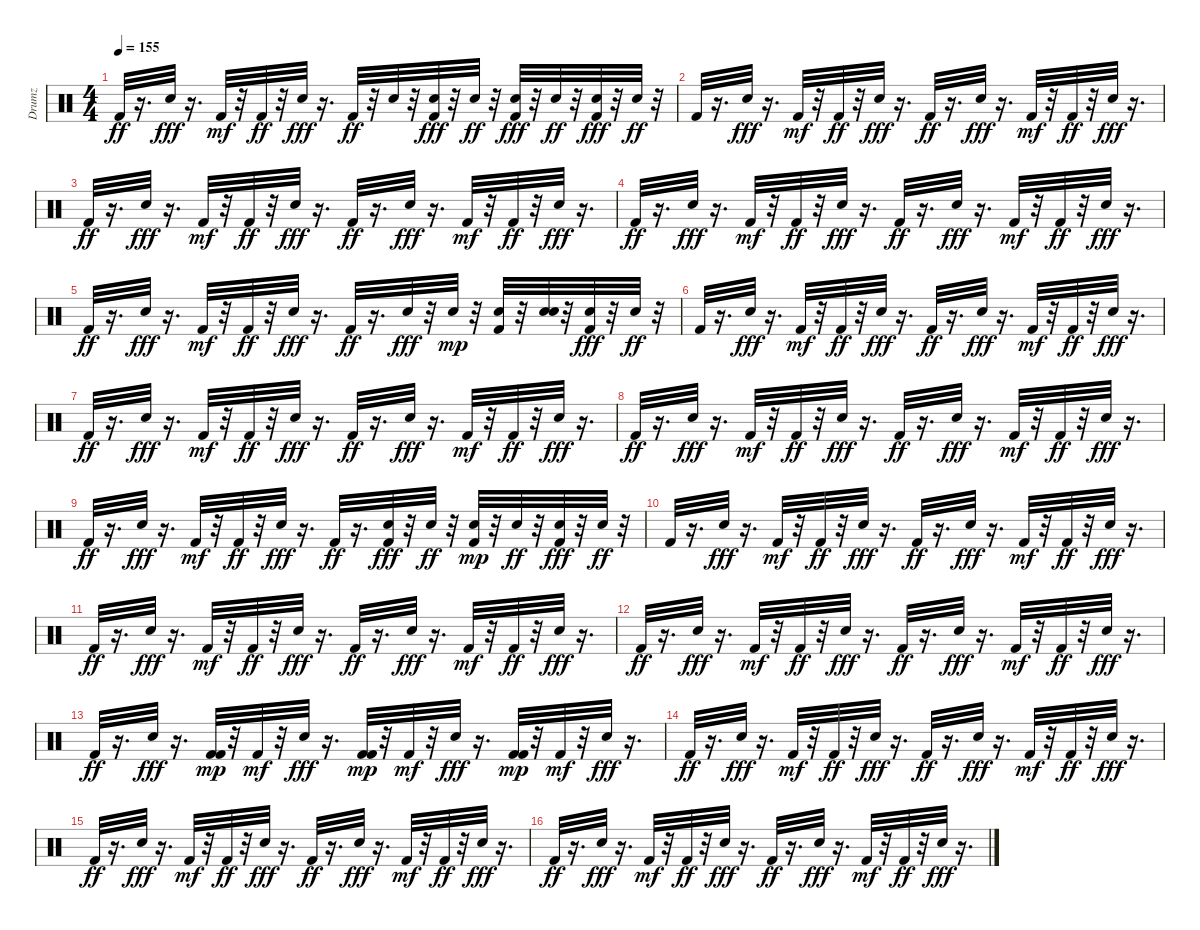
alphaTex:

\track ("Drumz" "Drumz") {instrument percussion}
\staff {score}
\articulation defaults
\ts (4 4)
\tempo 155
\clef neutral
\ks c "Kick (hit) 2".32{dy ff}
r.16{d} "Snare (hit) 2".32{dy fff} r.16{d} "Kick (hit) 2".32{dy mf} r.32 "Kick (hit) 2".32{dy ff} r.32 "Snare (hit) 2".32{dy fff} r.16{d} "Kick (hit) 2".32{dy ff} r.32 "Snare (hit) 2".32 r.32 ("Kick (hit) 2" "Snare (hit) 2").32{dy fff} r.32 "Snare (hit) 2".32{dy ff} r.32 ("Kick (hit) 2" "Snare (hit) 2").32{dy fff} r.32 "Snare (hit) 2".32{dy ff} r.32 ("Kick (hit) 2" "Snare (hit) 2").32{dy fff} r.32 "Snare (hit) 2".32{dy ff} r.32 |
"Kick (hit) 2".32 r.16{d} "Snare (hit) 2".32{dy fff} r.16{d} "Kick (hit) 2".32{dy mf} r.32 "Kick (hit) 2".32{dy ff} r.32 "Snare (hit) 2".32{dy fff} r.16{d} "Kick (hit) 2".32{dy ff} r.16{d} "Snare (hit) 2".32{dy fff} r.16{d} "Kick (hit) 2".32{dy mf} r.32 "Kick (hit) 2".32{dy ff} r.32 "Snare (hit) 2".32{dy fff} r.16{d} |
"Kick (hit) 2".32{dy ff} r.16{d} "Snare (hit) 2".32{dy fff} r.16{d} "Kick (hit) 2".32{dy mf} r.32 "Kick (hit) 2".32{dy ff} r.32 "Snare (hit) 2".32{dy fff} r.16{d} "Kick (hit) 2".32{dy ff} r.16{d} "Snare (hit) 2".32{dy fff} r.16{d} "Kick (hit) 2".32{dy mf} r.32 "Kick (hit) 2".32{dy ff} r.32 "Snare (hit) 2".32{dy fff} r.16{d} |
"Kick (hit) 2".32{dy ff} r.16{d} "Snare (hit) 2".32{dy fff} r.16{d} "Kick (hit) 2".32{dy mf} r.32 "Kick (hit) 2".32{dy ff} r.32 "Snare (hit) 2".32{dy fff} r.16{d} "Kick (hit) 2".32{dy ff} r.16{d} "Snare (hit) 2".32{dy fff} r.16{d} "Kick (hit) 2".32{dy mf} r.32 "Kick (hit) 2".32{dy ff} r.32 "Snare (hit) 2".32{dy fff} r.16{d} |
"Kick (hit) 2".32{dy ff} r.16{d} "Snare (hit) 2".32{dy fff} r.16{d} "Kick (hit) 2".32{dy mf} r.32 "Kick (hit) 2".32{dy ff} r.32 "Snare (hit) 2".32{dy fff} r.16{d} "Kick (hit) 2".32{dy ff} r.16{d} "Snare (hit) 2".32{dy fff} r.32 "Snare (hit) 2".32{dy mp} r.32 ("Kick (hit) 2" "Snare (hit) 2").32 r.32 ("Snare (hit) 2" "Snare (hit) 2").32 r.32 ("Kick (hit) 2" "Snare (hit) 2").32{dy fff} r.32 "Snare (hit) 2".32{dy ff} r.32 |
"Kick (hit) 2".32 r.16{d} "Snare (hit) 2".32{dy fff} r.16{d} "Kick (hit) 2".32{dy mf} r.32 "Kick (hit) 2".32{dy ff} r.32 "Snare (hit) 2".32{dy fff} r.16{d} "Kick (hit) 2".32{dy ff} r.16{d} "Snare (hit) 2".32{dy fff} r.16{d} "Kick (hit) 2".32{dy mf} r.32 "Kick (hit) 2".32{dy ff} r.32 "Snare (hit) 2".32{dy fff} r.16{d} |
"Kick (hit) 2".32{dy ff} r.16{d} "Snare (hit) 2".32{dy fff} r.16{d} "Kick (hit) 2".32{dy mf} r.32 "Kick (hit) 2".32{dy ff} r.32 "Snare (hit) 2".32{dy fff} r.16{d} "Kick (hit) 2".32{dy ff} r.16{d} "Snare (hit) 2".32{dy fff} r.16{d} "Kick (hit) 2".32{dy mf} r.32 "Kick (hit) 2".32{dy ff} r.32 "Snare (hit) 2".32{dy fff} r.16{d} |
"Kick (hit) 2".32{dy ff} r.16{d} "Snare (hit) 2".32{dy fff} r.16{d} "Kick (hit) 2".32{dy mf} r.32 "Kick (hit) 2".32{dy ff} r.32 "Snare (hit) 2".32{dy fff} r.16{d} "Kick (hit) 2".32{dy ff} r.16{d} "Snare (hit) 2".32{dy fff} r.16{d} "Kick (hit) 2".32{dy mf} r.32 "Kick (hit) 2".32{dy ff} r.32 "Snare (hit) 2".32{dy fff} r.16{d} |
"Kick (hit) 2".32{dy ff} r.16{d} "Snare (hit) 2".32{dy fff} r.16{d} "Kick (hit) 2".32{dy mf} r.32 "Kick (hit) 2".32{dy ff} r.32 "Snare (hit) 2".32{dy fff} r.16{d} "Kick (hit) 2".32{dy ff} r.16{d} ("Kick (hit) 2" "Snare (hit) 2").32{dy fff} r.32 "Snare (hit) 2".32{dy ff} r.32 ("Kick (hit) 2" "Snare (hit) 2").32{dy mp} r.32 "Snare (hit) 2".32{dy ff} r.32 ("Kick (hit) 2" "Snare (hit) 2").32{dy fff} r.32 "Snare (hit) 2".32{dy ff} r.32 |
"Kick (hit) 2".32 r.16{d} "Snare (hit) 2".32{dy fff} r.16{d} "Kick (hit) 2".32{dy mf} r.32 "Kick (hit) 2".32{dy ff} r.32 "Snare (hit) 2".32{dy fff} r.16{d} "Kick (hit) 2".32{dy ff} r.16{d} "Snare (hit) 2".32{dy fff} r.16{d} "Kick (hit) 2".32{dy mf} r.32 "Kick (hit) 2".32{dy ff} r.32 "Snare (hit) 2".32{dy fff} r.16{d} |
"Kick (hit) 2".32{dy ff} r.16{d} "Snare (hit) 2".32{dy fff} r.16{d} "Kick (hit) 2".32{dy mf} r.32 "Kick (hit) 2".32{dy ff} r.32 "Snare (hit) 2".32{dy fff} r.16{d} "Kick (hit) 2".32{dy ff} r.16{d} "Snare (hit) 2".32{dy fff} r.16{d} "Kick (hit) 2".32{dy mf} r.32 "Kick (hit) 2".32{dy ff} r.32 "Snare (hit) 2".32{dy fff} r.16{d} |
"Kick (hit) 2".32{dy ff} r.16{d} "Snare (hit) 2".32{dy fff} r.16{d} "Kick (hit) 2".32{dy mf} r.32 "Kick (hit) 2".32{dy ff} r.32 "Snare (hit) 2".32{dy fff} r.16{d} "Kick (hit) 2".32{dy ff} r.16{d} "Snare (hit) 2".32{dy fff} r.16{d} "Kick (hit) 2".32{dy mf} r.32 "Kick (hit) 2".32{dy ff} r.32 "Snare (hit) 2".32{dy fff} r.16{d} |
"Kick (hit) 2".32{dy ff} r.16{d} "Snare (hit) 2".32{dy fff} r.16{d} ("Kick (hit) 2" "Kick (hit) 2").32{dy mp} r.32 "Kick (hit) 2".32{dy mf} r.32 "Snare (hit) 2".32{dy fff} r.16{d} ("Kick (hit) 2" "Kick (hit) 2").32{dy mp} r.32 "Kick (hit) 2".32{dy mf} r.32 "Snare (hit) 2".32{dy fff} r.16{d} ("Kick (hit) 2" "Kick (hit) 2").32{dy mp} r.32 "Kick (hit) 2".32{dy mf} r.32 "Snare (hit) 2".32{dy fff} r.16{d} |
"Kick (hit) 2".32{dy ff} r.16{d} "Snare (hit) 2".32{dy fff} r.16{d} "Kick (hit) 2".32{dy mf} r.32 "Kick (hit) 2".32{dy ff} r.32 "Snare (hit) 2".32{dy fff} r.16{d} "Kick (hit) 2".32{dy ff} r.16{d} "Snare (hit) 2".32{dy fff} r.16{d} "Kick (hit) 2".32{dy mf} r.32 "Kick (hit) 2".32{dy ff} r.32 "Snare (hit) 2".32{dy fff} r.16{d} |
"Kick (hit) 2".32{dy ff} r.16{d} "Snare (hit) 2".32{dy fff} r.16{d} "Kick (hit) 2".32{dy mf} r.32 "Kick (hit) 2".32{dy ff} r.32 "Snare (hit) 2".32{dy fff} r.16{d} "Kick (hit) 2".32{dy ff} r.16{d} "Snare (hit) 2".32{dy fff} r.16{d} "Kick (hit) 2".32{dy mf} r.32 "Kick (hit) 2".32{dy ff} r.32 "Snare (hit) 2".32{dy fff} r.16{d} |
"Kick (hit) 2".32{dy ff} r.16{d} "Snare (hit) 2".32{dy fff} r.16{d} "Kick (hit) 2".32{dy mf} r.32 "Kick (hit) 2".32{dy ff} r.32 "Snare (hit) 2".32{dy fff} r.16{d} "Kick (hit) 2".32{dy ff} r.16{d} "Snare (hit) 2".32{dy fff} r.16{d} "Kick (hit) 2".32{dy mf} r.32 "Kick (hit) 2".32{dy ff} r.32 "Snare (hit) 2".32{dy fff} r.16{d}
